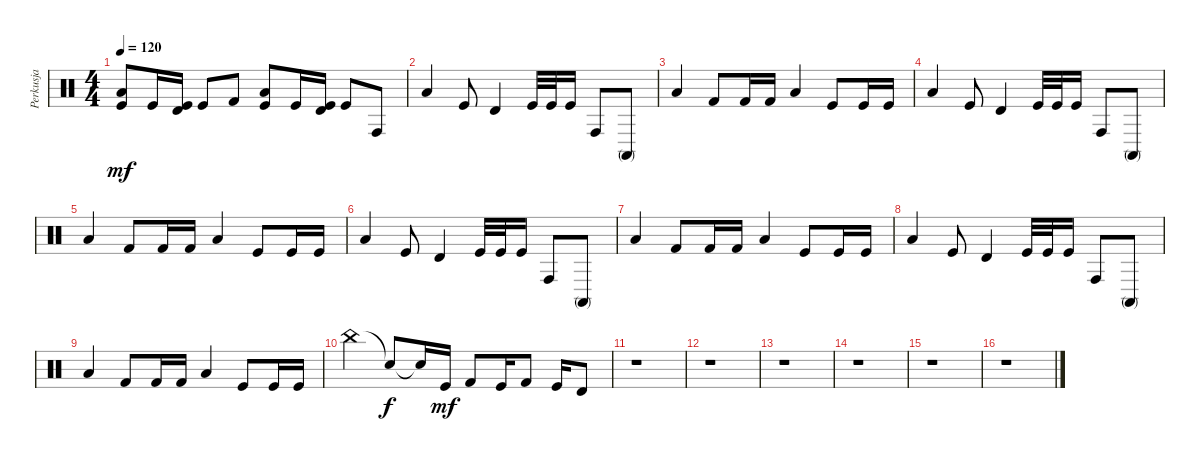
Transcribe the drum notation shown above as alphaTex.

\track ("Perkusja" "Perkusja") {instrument percussion}
\staff {score}
\articulation defaults
\ts (4 4)
\tempo 120
\clef neutral
\ks c
("Low Tom (hit)" "Kick (hit)").8{dy mf} "Kick (hit)".16 ("Timbale high (hit)" "Kick (hit)").16 "Kick (hit)".8 "Kick (hit) 2".8 ("Low Tom (hit)" "Kick (hit)").8 "Kick (hit)".16 ("Timbale high (hit)" "Kick (hit)").16 "Kick (hit)".8 "Conga high (hit)".8 |
"Low Tom (hit)".4 "Kick (hit)".8 "Timbale high (hit)".4 "Kick (hit)".32 "Kick (hit)".32 "Kick (hit)".16 "Conga high (hit)".8 "Conga high (mute)".8 |
"Low Tom (hit)".4 "Kick (hit) 2".8 "Kick (hit) 2".16 "Kick (hit) 2".16 "Low Tom (hit)".4 "Kick (hit)".8 "Kick (hit)".16 "Kick (hit)".16 |
"Low Tom (hit)".4 "Kick (hit)".8 "Timbale high (hit)".4 "Kick (hit)".32 "Kick (hit)".32 "Kick (hit)".16 "Conga high (hit)".8 "Conga high (mute)".8 |
"Low Tom (hit)".4 "Kick (hit) 2".8 "Kick (hit) 2".16 "Kick (hit) 2".16 "Low Tom (hit)".4 "Kick (hit)".8 "Kick (hit)".16 "Kick (hit)".16 |
"Low Tom (hit)".4 "Kick (hit)".8 "Timbale high (hit)".4 "Kick (hit)".32 "Kick (hit)".32 "Kick (hit)".16 "Conga high (hit)".8 "Conga high (mute)".8 |
"Low Tom (hit)".4 "Kick (hit) 2".8 "Kick (hit) 2".16 "Kick (hit) 2".16 "Low Tom (hit)".4 "Kick (hit)".8 "Kick (hit)".16 "Kick (hit)".16 |
"Low Tom (hit)".4 "Kick (hit)".8 "Timbale high (hit)".4 "Kick (hit)".32 "Kick (hit)".32 "Kick (hit)".16 "Conga high (hit)".8 "Conga high (mute)".8 |
"Low Tom (hit)".4 "Kick (hit) 2".8 "Kick (hit) 2".16 "Kick (hit) 2".16 "Low Tom (hit)".4 "Kick (hit)".8 "Kick (hit)".16 "Kick (hit)".16 |
"China (hit)".4 "Snare (hit)"{t}.8{dy f} "Snare (hit)"{t}.16 "Kick (hit)".16{dy mf} "Kick (hit) 2".8 "Kick (hit)".16 "Kick (hit) 2".8 "Kick (hit)".16 "Timbale high (hit)".8 |
r.1 |
r.1 |
r.1 |
r.1 |
r.1 |
r.1
